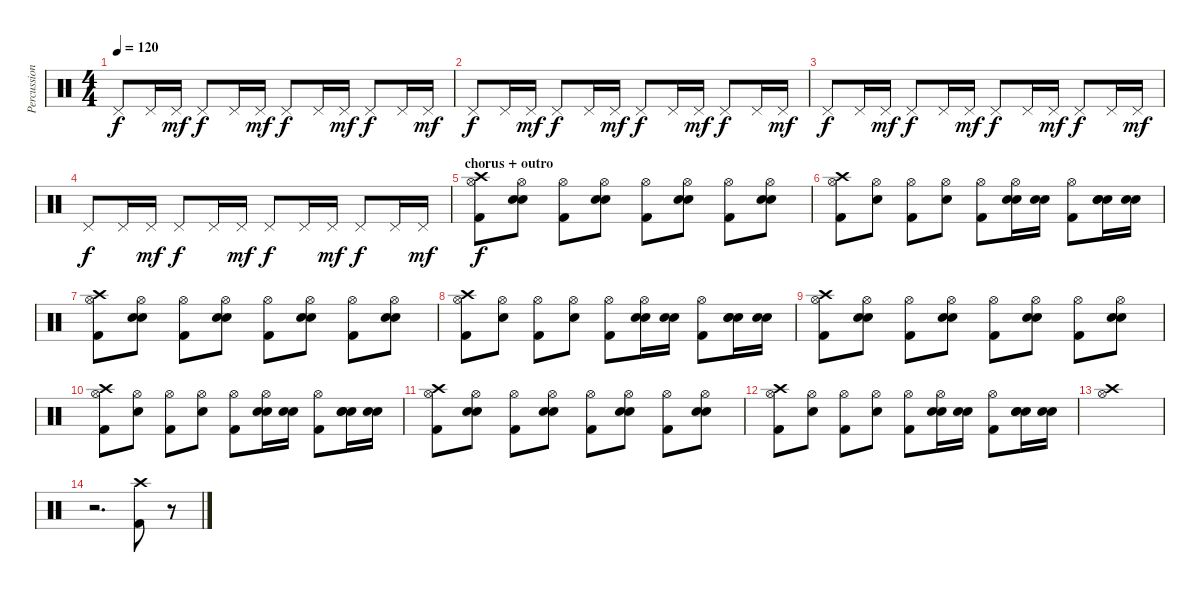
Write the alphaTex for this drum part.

\track ("Percussion" "Percussion") {instrument percussion}
\staff {score}
\articulation defaults
\ts (4 4)
\tempo 120
\clef neutral
\ks c "Pedal Hi-Hat (hit)".8{dy f} "Pedal Hi-Hat (hit)".16 "Pedal Hi-Hat (hit)".16{dy mf} "Pedal Hi-Hat (hit)".8{dy f} "Pedal Hi-Hat (hit)".16 "Pedal Hi-Hat (hit)".16{dy mf} "Pedal Hi-Hat (hit)".8{dy f} "Pedal Hi-Hat (hit)".16 "Pedal Hi-Hat (hit)".16{dy mf} "Pedal Hi-Hat (hit)".8{dy f} "Pedal Hi-Hat (hit)".16 "Pedal Hi-Hat (hit)".16{dy mf}
|
"Pedal Hi-Hat (hit)".8{dy f} "Pedal Hi-Hat (hit)".16 "Pedal Hi-Hat (hit)".16{dy mf} "Pedal Hi-Hat (hit)".8{dy f} "Pedal Hi-Hat (hit)".16 "Pedal Hi-Hat (hit)".16{dy mf} "Pedal Hi-Hat (hit)".8{dy f} "Pedal Hi-Hat (hit)".16 "Pedal Hi-Hat (hit)".16{dy mf} "Pedal Hi-Hat (hit)".8{dy f} "Pedal Hi-Hat (hit)".16 "Pedal Hi-Hat (hit)".16{dy mf} |
"Pedal Hi-Hat (hit)".8{dy f} "Pedal Hi-Hat (hit)".16 "Pedal Hi-Hat (hit)".16{dy mf} "Pedal Hi-Hat (hit)".8{dy f} "Pedal Hi-Hat (hit)".16 "Pedal Hi-Hat (hit)".16{dy mf} "Pedal Hi-Hat (hit)".8{dy f} "Pedal Hi-Hat (hit)".16 "Pedal Hi-Hat (hit)".16{dy mf} "Pedal Hi-Hat (hit)".8{dy f} "Pedal Hi-Hat (hit)".16 "Pedal Hi-Hat (hit)".16{dy mf} |
"Pedal Hi-Hat (hit)".8{dy f} "Pedal Hi-Hat (hit)".16 "Pedal Hi-Hat (hit)".16{dy mf} "Pedal Hi-Hat (hit)".8{dy f} "Pedal Hi-Hat (hit)".16 "Pedal Hi-Hat (hit)".16{dy mf} "Pedal Hi-Hat (hit)".8{dy f} "Pedal Hi-Hat (hit)".16 "Pedal Hi-Hat (hit)".16{dy mf} "Pedal Hi-Hat (hit)".8{dy f} "Pedal Hi-Hat (hit)".16 "Pedal Hi-Hat (hit)".16{dy mf} |
\section ("" "chorus + outro")
("Hi-Hat (open)" "Crash high (hit)" "Kick (hit) 2").8{dy f} ("Hi-Hat (open)" "Electric Snare (hit)" "Snare (hit) 2").8 ("Hi-Hat (open)" "Kick (hit) 2").8 ("Hi-Hat (open)" "Electric Snare (hit)" "Snare (hit) 2").8 ("Hi-Hat (open)" "Kick (hit) 2").8 ("Hi-Hat (open)" "Electric Snare (hit)" "Snare (hit) 2").8 ("Hi-Hat (open)" "Kick (hit) 2").8 ("Hi-Hat (open)" "Electric Snare (hit)" "Snare (hit) 2").8 |
("Hi-Hat (open)" "Crash high (hit)" "Kick (hit) 2").8 ("Hi-Hat (open)" "Electric Snare (hit)").8 ("Hi-Hat (open)" "Kick (hit) 2").8 ("Hi-Hat (open)" "Electric Snare (hit)").8 ("Hi-Hat (open)" "Kick (hit) 2").8 ("Hi-Hat (open)" "Electric Snare (hit)" "Snare (hit) 2").16 ("Electric Snare (hit)" "Snare (hit) 2").16 ("Hi-Hat (open)" "Kick (hit) 2").8 ("Electric Snare (hit)" "Electric Snare (hit)" "Snare (hit) 2").16 ("Electric Snare (hit)" "Snare (hit) 2").16 |
("Hi-Hat (open)" "Crash high (hit)" "Kick (hit) 2").8 ("Hi-Hat (open)" "Electric Snare (hit)" "Snare (hit) 2").8 ("Hi-Hat (open)" "Kick (hit) 2").8 ("Hi-Hat (open)" "Electric Snare (hit)" "Snare (hit) 2").8 ("Hi-Hat (open)" "Kick (hit) 2").8 ("Hi-Hat (open)" "Electric Snare (hit)" "Snare (hit) 2").8 ("Hi-Hat (open)" "Kick (hit) 2").8 ("Hi-Hat (open)" "Electric Snare (hit)" "Snare (hit) 2").8 |
("Hi-Hat (open)" "Crash high (hit)" "Kick (hit) 2").8 ("Hi-Hat (open)" "Electric Snare (hit)").8 ("Hi-Hat (open)" "Kick (hit) 2").8 ("Hi-Hat (open)" "Electric Snare (hit)").8 ("Hi-Hat (open)" "Kick (hit) 2").8 ("Hi-Hat (open)" "Electric Snare (hit)" "Snare (hit) 2").16 ("Electric Snare (hit)" "Snare (hit) 2").16 ("Hi-Hat (open)" "Kick (hit) 2").8 ("Electric Snare (hit)" "Electric Snare (hit)" "Snare (hit) 2").16 ("Electric Snare (hit)" "Snare (hit) 2").16 |
("Hi-Hat (open)" "Crash high (hit)" "Kick (hit) 2").8 ("Hi-Hat (open)" "Electric Snare (hit)" "Snare (hit) 2").8 ("Hi-Hat (open)" "Kick (hit) 2").8 ("Hi-Hat (open)" "Electric Snare (hit)" "Snare (hit) 2").8 ("Hi-Hat (open)" "Kick (hit) 2").8 ("Hi-Hat (open)" "Electric Snare (hit)" "Snare (hit) 2").8 ("Hi-Hat (open)" "Kick (hit) 2").8 ("Hi-Hat (open)" "Electric Snare (hit)" "Snare (hit) 2").8 |
("Hi-Hat (open)" "Crash high (hit)" "Kick (hit) 2").8 ("Hi-Hat (open)" "Electric Snare (hit)").8 ("Hi-Hat (open)" "Kick (hit) 2").8 ("Hi-Hat (open)" "Electric Snare (hit)").8 ("Hi-Hat (open)" "Kick (hit) 2").8 ("Hi-Hat (open)" "Electric Snare (hit)" "Snare (hit) 2").16 ("Electric Snare (hit)" "Snare (hit) 2").16 ("Hi-Hat (open)" "Kick (hit) 2").8 ("Electric Snare (hit)" "Electric Snare (hit)" "Snare (hit) 2").16 ("Electric Snare (hit)" "Snare (hit) 2").16 |
("Hi-Hat (open)" "Crash high (hit)" "Kick (hit) 2").8 ("Hi-Hat (open)" "Electric Snare (hit)" "Snare (hit) 2").8 ("Hi-Hat (open)" "Kick (hit) 2").8 ("Hi-Hat (open)" "Electric Snare (hit)" "Snare (hit) 2").8 ("Hi-Hat (open)" "Kick (hit) 2").8 ("Hi-Hat (open)" "Electric Snare (hit)" "Snare (hit) 2").8 ("Hi-Hat (open)" "Kick (hit) 2").8 ("Hi-Hat (open)" "Electric Snare (hit)" "Snare (hit) 2").8 |
("Hi-Hat (open)" "Crash high (hit)" "Kick (hit) 2").8 ("Hi-Hat (open)" "Electric Snare (hit)").8 ("Hi-Hat (open)" "Kick (hit) 2").8 ("Hi-Hat (open)" "Electric Snare (hit)").8 ("Hi-Hat (open)" "Kick (hit) 2").8 ("Hi-Hat (open)" "Electric Snare (hit)" "Snare (hit) 2").16 ("Electric Snare (hit)" "Snare (hit) 2").16 ("Hi-Hat (open)" "Kick (hit) 2").8 ("Electric Snare (hit)" "Electric Snare (hit)" "Snare (hit) 2").16 ("Electric Snare (hit)" "Snare (hit) 2").16 |
("Crash high (hit)" "Hi-Hat (open)").1 |
r.2{d} ("Crash high (hit)" "Kick (hit) 2").8 r.8
